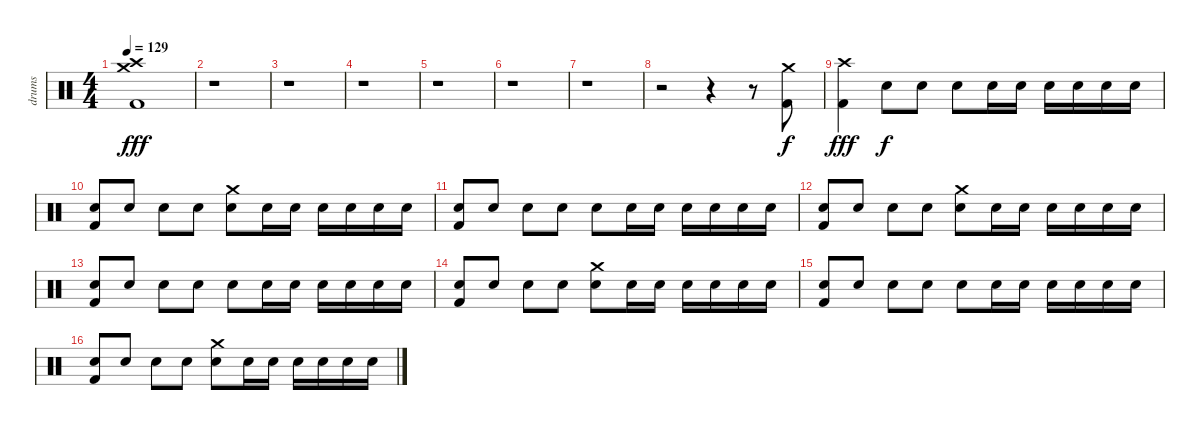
\track ("drums" "drums") {instrument percussion}
\staff {score}
\articulation defaults
\ts (4 4)
\tempo 129
\clef neutral
\ks c
("Kick (hit) 2" "Crash high (hit)" "Crash medium (hit)").1{dy fff} |
r.1 |
r.1 |
r.1 |
r.1 |
r.1 |
r.1 |
r.2 r.4 r.8 ("Kick (hit) 2" "Crash medium (hit)").8{dy f} |
("Kick (hit) 2" "Crash high (hit)").4{dy fff} "Snare (hit) 2".8{dy f} "Snare (hit) 2".8 "Snare (hit) 2".8 "Snare (hit) 2".16 "Snare (hit) 2".16 "Snare (hit) 2".16 "Snare (hit) 2".16 "Snare (hit) 2".16 "Snare (hit) 2".16 |
("Kick (hit) 2" "Snare (hit) 2").8 "Snare (hit) 2".8 "Snare (hit) 2".8 "Snare (hit) 2".8 ("Crash medium (hit)" "Snare (hit) 2").8 "Snare (hit) 2".16 "Snare (hit) 2".16 "Snare (hit) 2".16 "Snare (hit) 2".16 "Snare (hit) 2".16 "Snare (hit) 2".16 |
("Kick (hit) 2" "Snare (hit) 2").8 "Snare (hit) 2".8 "Snare (hit) 2".8 "Snare (hit) 2".8 "Snare (hit) 2".8 "Snare (hit) 2".16 "Snare (hit) 2".16 "Snare (hit) 2".16 "Snare (hit) 2".16 "Snare (hit) 2".16 "Snare (hit) 2".16 |
("Kick (hit) 2" "Snare (hit) 2").8 "Snare (hit) 2".8 "Snare (hit) 2".8 "Snare (hit) 2".8 ("Crash medium (hit)" "Snare (hit) 2").8 "Snare (hit) 2".16 "Snare (hit) 2".16 "Snare (hit) 2".16 "Snare (hit) 2".16 "Snare (hit) 2".16 "Snare (hit) 2".16 |
("Kick (hit) 2" "Snare (hit) 2").8 "Snare (hit) 2".8 "Snare (hit) 2".8 "Snare (hit) 2".8 "Snare (hit) 2".8 "Snare (hit) 2".16 "Snare (hit) 2".16 "Snare (hit) 2".16 "Snare (hit) 2".16 "Snare (hit) 2".16 "Snare (hit) 2".16 |
("Kick (hit) 2" "Snare (hit) 2").8 "Snare (hit) 2".8 "Snare (hit) 2".8 "Snare (hit) 2".8 ("Crash medium (hit)" "Snare (hit) 2").8 "Snare (hit) 2".16 "Snare (hit) 2".16 "Snare (hit) 2".16 "Snare (hit) 2".16 "Snare (hit) 2".16 "Snare (hit) 2".16 |
("Kick (hit) 2" "Snare (hit) 2").8 "Snare (hit) 2".8 "Snare (hit) 2".8 "Snare (hit) 2".8 "Snare (hit) 2".8 "Snare (hit) 2".16 "Snare (hit) 2".16 "Snare (hit) 2".16 "Snare (hit) 2".16 "Snare (hit) 2".16 "Snare (hit) 2".16 |
("Kick (hit) 2" "Snare (hit) 2").8 "Snare (hit) 2".8 "Snare (hit) 2".8 "Snare (hit) 2".8 ("Crash medium (hit)" "Snare (hit) 2").8 "Snare (hit) 2".16 "Snare (hit) 2".16 "Snare (hit) 2".16 "Snare (hit) 2".16 "Snare (hit) 2".16 "Snare (hit) 2".16
